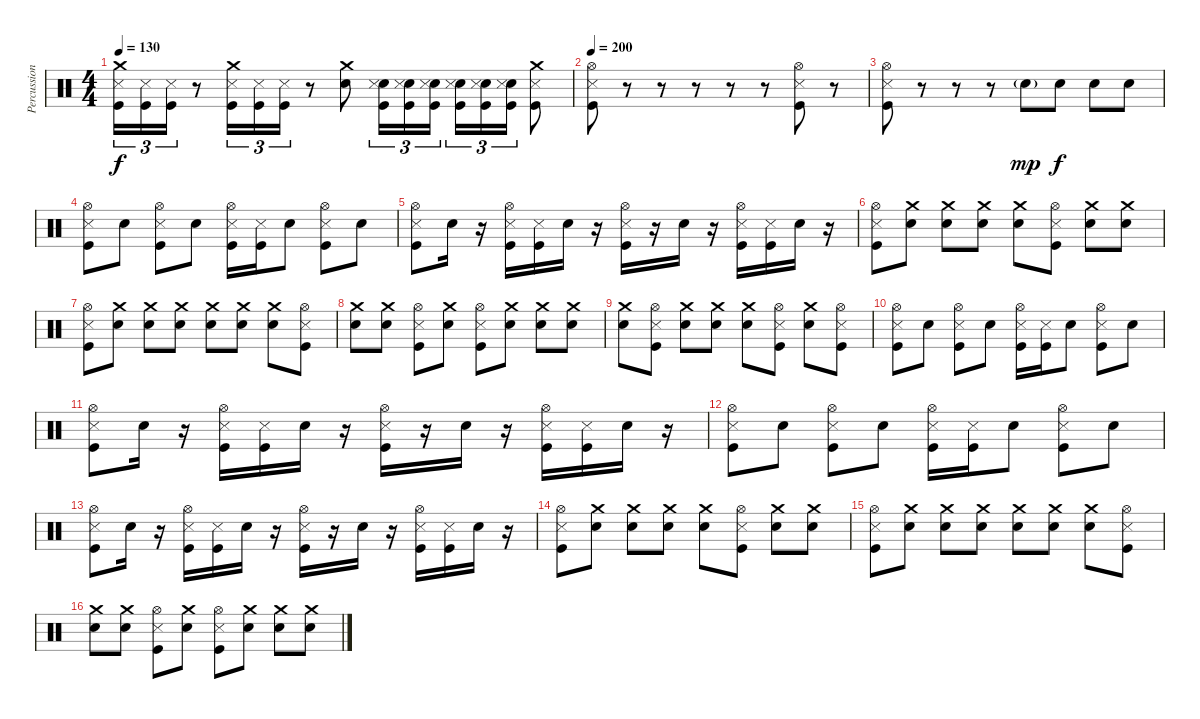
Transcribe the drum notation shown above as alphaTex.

\track ("Percussion" "Percussion") {instrument percussion}
\staff {score}
\articulation defaults
\ts (4 4)
\tempo 130
\clef neutral
\ks c
("Crash medium (hit)" "Metronome (hit)" "Kick (hit)").16{tu (3 2) dy f} ("Metronome (hit)" "Kick (hit)").16{tu (3 2)} ("Metronome (hit)" "Kick (hit)").16{tu (3 2)} r.8 ("Crash medium (hit)" "Metronome (hit)" "Kick (hit)").16{tu (3 2)} ("Metronome (hit)" "Kick (hit)").16{tu (3 2)} ("Metronome (hit)" "Kick (hit)").16{tu (3 2)} r.8 ("Crash medium (hit)" "Electric Snare (hit)").8 ("Electric Snare (hit)" "Metronome (hit)" "Kick (hit)").16{tu (3 2)} ("Electric Snare (hit)" "Metronome (hit)" "Kick (hit)").16{tu (3 2)} ("Electric Snare (hit)" "Metronome (hit)" "Kick (hit)").16{tu (3 2)} ("Electric Snare (hit)" "Metronome (hit)" "Kick (hit)").16{tu (3 2)} ("Electric Snare (hit)" "Metronome (hit)" "Kick (hit)").16{tu (3 2)} ("Electric Snare (hit)" "Metronome (hit)" "Kick (hit)").16{tu (3 2)} ("Crash medium (hit)" "Metronome (hit)" "Kick (hit)").8 |
\tempo 200
("Hi-Hat (open)" "Metronome (hit)" "Kick (hit)").8 r.8 r.8 r.8 r.8 r.8 ("Hi-Hat (open)" "Metronome (hit)" "Kick (hit)").8 r.8 |
("Hi-Hat (open)" "Metronome (hit)" "Kick (hit)").8 r.8 r.8 r.8 "Electric Snare (hit)"{g}.8{dy mp} "Electric Snare (hit)".8{dy f} "Electric Snare (hit)".8 "Electric Snare (hit)".8 |
("Hi-Hat (open)" "Metronome (hit)" "Kick (hit)").8 "Electric Snare (hit)".8 ("Hi-Hat (open)" "Metronome (hit)" "Kick (hit)").8 "Electric Snare (hit)".8 ("Hi-Hat (open)" "Metronome (hit)" "Kick (hit)").16 ("Metronome (hit)" "Kick (hit)").16 "Electric Snare (hit)".8 ("Hi-Hat (open)" "Metronome (hit)" "Kick (hit)").8 "Electric Snare (hit)".8 |
("Hi-Hat (open)" "Metronome (hit)" "Kick (hit)").8 "Electric Snare (hit)".16 r.16 ("Hi-Hat (open)" "Metronome (hit)" "Kick (hit)").16 ("Metronome (hit)" "Kick (hit)").16 "Electric Snare (hit)".16 r.16 ("Hi-Hat (open)" "Metronome (hit)" "Kick (hit)").16 r.16 "Electric Snare (hit)".16 r.16 ("Hi-Hat (open)" "Metronome (hit)" "Kick (hit)").16 ("Metronome (hit)" "Kick (hit)").16 "Electric Snare (hit)".16 r.16 |
("Hi-Hat (open)" "Metronome (hit)" "Kick (hit)").8 ("Crash medium (hit)" "Electric Snare (hit)").8 ("Crash medium (hit)" "Electric Snare (hit)").8 ("Crash medium (hit)" "Electric Snare (hit)").8 ("Crash medium (hit)" "Electric Snare (hit)").8 ("Hi-Hat (open)" "Metronome (hit)" "Kick (hit)").8 ("Crash medium (hit)" "Electric Snare (hit)").8 ("Crash medium (hit)" "Electric Snare (hit)").8 |
("Hi-Hat (open)" "Metronome (hit)" "Kick (hit)").8 ("Crash medium (hit)" "Electric Snare (hit)").8 ("Crash medium (hit)" "Electric Snare (hit)").8 ("Crash medium (hit)" "Electric Snare (hit)").8 ("Crash medium (hit)" "Electric Snare (hit)").8 ("Crash medium (hit)" "Electric Snare (hit)").8 ("Crash medium (hit)" "Electric Snare (hit)").8 ("Hi-Hat (open)" "Metronome (hit)" "Kick (hit)").8 |
("Crash medium (hit)" "Electric Snare (hit)").8 ("Crash medium (hit)" "Electric Snare (hit)").8 ("Hi-Hat (open)" "Metronome (hit)" "Kick (hit)").8 ("Crash medium (hit)" "Electric Snare (hit)").8 ("Hi-Hat (open)" "Metronome (hit)" "Kick (hit)").8 ("Crash medium (hit)" "Electric Snare (hit)").8 ("Crash medium (hit)" "Electric Snare (hit)").8 ("Crash medium (hit)" "Electric Snare (hit)").8 |
("Crash medium (hit)" "Electric Snare (hit)").8 ("Hi-Hat (open)" "Metronome (hit)" "Kick (hit)").8 ("Crash medium (hit)" "Electric Snare (hit)").8 ("Crash medium (hit)" "Electric Snare (hit)").8 ("Crash medium (hit)" "Electric Snare (hit)").8 ("Hi-Hat (open)" "Metronome (hit)" "Kick (hit)").8 ("Crash medium (hit)" "Electric Snare (hit)").8 ("Hi-Hat (open)" "Metronome (hit)" "Kick (hit)").8 |
("Hi-Hat (open)" "Metronome (hit)" "Kick (hit)").8 "Electric Snare (hit)".8 ("Hi-Hat (open)" "Metronome (hit)" "Kick (hit)").8 "Electric Snare (hit)".8 ("Hi-Hat (open)" "Metronome (hit)" "Kick (hit)").16 ("Metronome (hit)" "Kick (hit)").16 "Electric Snare (hit)".8 ("Hi-Hat (open)" "Metronome (hit)" "Kick (hit)").8 "Electric Snare (hit)".8 |
("Hi-Hat (open)" "Metronome (hit)" "Kick (hit)").8 "Electric Snare (hit)".16 r.16 ("Hi-Hat (open)" "Metronome (hit)" "Kick (hit)").16 ("Metronome (hit)" "Kick (hit)").16 "Electric Snare (hit)".16 r.16 ("Hi-Hat (open)" "Metronome (hit)" "Kick (hit)").16 r.16 "Electric Snare (hit)".16 r.16 ("Hi-Hat (open)" "Metronome (hit)" "Kick (hit)").16 ("Metronome (hit)" "Kick (hit)").16 "Electric Snare (hit)".16 r.16 |
("Hi-Hat (open)" "Metronome (hit)" "Kick (hit)").8 "Electric Snare (hit)".8 ("Hi-Hat (open)" "Metronome (hit)" "Kick (hit)").8 "Electric Snare (hit)".8 ("Hi-Hat (open)" "Metronome (hit)" "Kick (hit)").16 ("Metronome (hit)" "Kick (hit)").16 "Electric Snare (hit)".8 ("Hi-Hat (open)" "Metronome (hit)" "Kick (hit)").8 "Electric Snare (hit)".8 |
("Hi-Hat (open)" "Metronome (hit)" "Kick (hit)").8 "Electric Snare (hit)".16 r.16 ("Hi-Hat (open)" "Metronome (hit)" "Kick (hit)").16 ("Metronome (hit)" "Kick (hit)").16 "Electric Snare (hit)".16 r.16 ("Hi-Hat (open)" "Metronome (hit)" "Kick (hit)").16 r.16 "Electric Snare (hit)".16 r.16 ("Hi-Hat (open)" "Metronome (hit)" "Kick (hit)").16 ("Metronome (hit)" "Kick (hit)").16 "Electric Snare (hit)".16 r.16 |
("Hi-Hat (open)" "Metronome (hit)" "Kick (hit)").8 ("Crash medium (hit)" "Electric Snare (hit)").8 ("Crash medium (hit)" "Electric Snare (hit)").8 ("Crash medium (hit)" "Electric Snare (hit)").8 ("Crash medium (hit)" "Electric Snare (hit)").8 ("Hi-Hat (open)" "Metronome (hit)" "Kick (hit)").8 ("Crash medium (hit)" "Electric Snare (hit)").8 ("Crash medium (hit)" "Electric Snare (hit)").8 |
("Hi-Hat (open)" "Metronome (hit)" "Kick (hit)").8 ("Crash medium (hit)" "Electric Snare (hit)").8 ("Crash medium (hit)" "Electric Snare (hit)").8 ("Crash medium (hit)" "Electric Snare (hit)").8 ("Crash medium (hit)" "Electric Snare (hit)").8 ("Crash medium (hit)" "Electric Snare (hit)").8 ("Crash medium (hit)" "Electric Snare (hit)").8 ("Hi-Hat (open)" "Metronome (hit)" "Kick (hit)").8 |
("Crash medium (hit)" "Electric Snare (hit)").8 ("Crash medium (hit)" "Electric Snare (hit)").8 ("Hi-Hat (open)" "Metronome (hit)" "Kick (hit)").8 ("Crash medium (hit)" "Electric Snare (hit)").8 ("Hi-Hat (open)" "Metronome (hit)" "Kick (hit)").8 ("Crash medium (hit)" "Electric Snare (hit)").8 ("Crash medium (hit)" "Electric Snare (hit)").8 ("Crash medium (hit)" "Electric Snare (hit)").8
